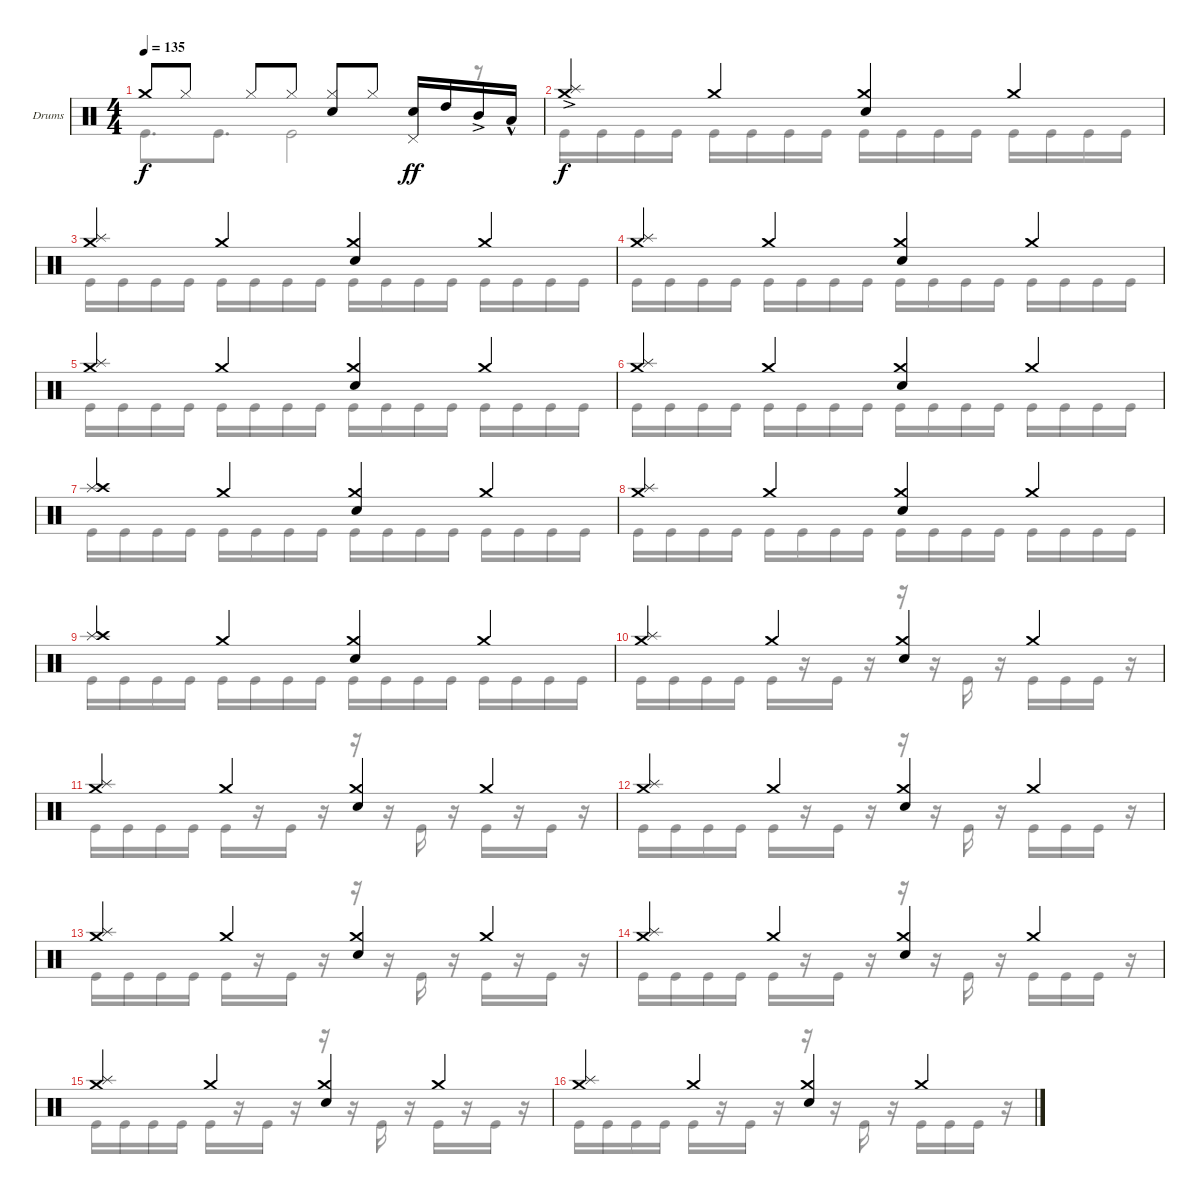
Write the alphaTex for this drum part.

\defaultSystemsLayout 4
\bracketExtendMode groupsimilarinstruments
\firstSystemTrackNameOrientation horizontal
\otherSystemsTrackNameOrientation horizontal
\track ("Drumkit" "Drums") {instrument percussion}
\staff {score}
\articulation defaults
\voice
\ts (4 4)
\tempo 135
\clef neutral
\ks c "Crash medium (hit)".8{dy f} "Hi-Hat (closed)".8 "Hi-Hat (closed)".8 "Hi-Hat (closed)".8
("Snare (hit) 2" "Hi-Hat (closed)").8 "Hi-Hat (closed)".8 ("Snare (hit) 2" "Pedal Hi-Hat (hit)").16{dy ff} "High Tom (hit)".16 "Mid Tom (hit)"{ac}.16 "Low Tom (hit)"{hac}.16 |
("Crash medium (hit)"{ac} "Splash (hit)").4{dy f} "Crash medium (hit)".4 ("Crash medium (hit)" "Snare (hit) 2").4 "Crash medium (hit)".4 |
("Crash medium (hit)" "Splash (hit)").4 "Crash medium (hit)".4 ("Crash medium (hit)" "Snare (hit) 2").4 "Crash medium (hit)".4 |
("Crash medium (hit)" "Splash (hit)").4 "Crash medium (hit)".4 ("Crash medium (hit)" "Snare (hit) 2").4 "Crash medium (hit)".4 |
("Crash medium (hit)" "Splash (hit)").4 "Crash medium (hit)".4 ("Crash medium (hit)" "Snare (hit) 2").4 "Crash medium (hit)".4 |
("Crash medium (hit)" "Splash (hit)").4 "Crash medium (hit)".4 ("Crash medium (hit)" "Snare (hit) 2").4 "Crash medium (hit)".4 |
("Splash (hit)" "Crash high (hit)").4 "Crash medium (hit)".4 ("Crash medium (hit)" "Snare (hit) 2").4 "Crash medium (hit)".4 |
("Crash medium (hit)" "Splash (hit)").4 "Crash medium (hit)".4 ("Crash medium (hit)" "Snare (hit) 2").4 "Crash medium (hit)".4 |
("Splash (hit)" "Crash high (hit)").4 "Crash medium (hit)".4 ("Crash medium (hit)" "Snare (hit) 2").4 "Crash medium (hit)".4 |
("Crash medium (hit)" "Splash (hit)").4 "Crash medium (hit)".4 ("Crash medium (hit)" "Snare (hit) 2").4 "Crash medium (hit)".4 |
("Crash medium (hit)" "Splash (hit)").4 "Crash medium (hit)".4 ("Crash medium (hit)" "Snare (hit) 2").4 "Crash medium (hit)".4 |
("Crash medium (hit)" "Splash (hit)").4 "Crash medium (hit)".4 ("Crash medium (hit)" "Snare (hit) 2").4 "Crash medium (hit)".4 |
("Crash medium (hit)" "Splash (hit)").4 "Crash medium (hit)".4 ("Crash medium (hit)" "Snare (hit) 2").4 "Crash medium (hit)".4 |
("Crash medium (hit)" "Splash (hit)").4 "Crash medium (hit)".4 ("Crash medium (hit)" "Snare (hit) 2").4 "Crash medium (hit)".4 |
("Crash medium (hit)" "Splash (hit)").4 "Crash medium (hit)".4 ("Crash medium (hit)" "Snare (hit) 2").4 "Crash medium (hit)".4 |
("Crash medium (hit)" "Splash (hit)").4 "Crash medium (hit)".4 ("Crash medium (hit)" "Snare (hit) 2").4 "Crash medium (hit)".4
\voice
\clef neutral
\ottava regular
\simile none
\ks c "Kick (hit)".8{d dy f} "Kick (hit)".8{d} "Kick (hit)".2
r.8 |
"Kick (hit)".16 "Kick (hit)".16 "Kick (hit)".16 "Kick (hit)".16 "Kick (hit)".16 "Kick (hit)".16 "Kick (hit)".16 "Kick (hit)".16 "Kick (hit)".16 "Kick (hit)".16 "Kick (hit)".16 "Kick (hit)".16 "Kick (hit)".16 "Kick (hit)".16 "Kick (hit)".16 "Kick (hit)".16 |
"Kick (hit)".16 "Kick (hit)".16 "Kick (hit)".16 "Kick (hit)".16 "Kick (hit)".16 "Kick (hit)".16 "Kick (hit)".16 "Kick (hit)".16 "Kick (hit)".16 "Kick (hit)".16 "Kick (hit)".16 "Kick (hit)".16 "Kick (hit)".16 "Kick (hit)".16 "Kick (hit)".16 "Kick (hit)".16 |
"Kick (hit)".16 "Kick (hit)".16 "Kick (hit)".16 "Kick (hit)".16 "Kick (hit)".16 "Kick (hit)".16 "Kick (hit)".16 "Kick (hit)".16 "Kick (hit)".16 "Kick (hit)".16 "Kick (hit)".16 "Kick (hit)".16 "Kick (hit)".16 "Kick (hit)".16 "Kick (hit)".16 "Kick (hit)".16 |
"Kick (hit)".16 "Kick (hit)".16 "Kick (hit)".16 "Kick (hit)".16 "Kick (hit)".16 "Kick (hit)".16 "Kick (hit)".16 "Kick (hit)".16 "Kick (hit)".16 "Kick (hit)".16 "Kick (hit)".16 "Kick (hit)".16 "Kick (hit)".16 "Kick (hit)".16 "Kick (hit)".16 "Kick (hit)".16 |
"Kick (hit)".16 "Kick (hit)".16 "Kick (hit)".16 "Kick (hit)".16 "Kick (hit)".16 "Kick (hit)".16 "Kick (hit)".16 "Kick (hit)".16 "Kick (hit)".16 "Kick (hit)".16 "Kick (hit)".16 "Kick (hit)".16 "Kick (hit)".16 "Kick (hit)".16 "Kick (hit)".16 "Kick (hit)".16 |
"Kick (hit)".16 "Kick (hit)".16 "Kick (hit)".16 "Kick (hit)".16 "Kick (hit)".16 "Kick (hit)".16 "Kick (hit)".16 "Kick (hit)".16 "Kick (hit)".16 "Kick (hit)".16 "Kick (hit)".16 "Kick (hit)".16 "Kick (hit)".16 "Kick (hit)".16 "Kick (hit)".16 "Kick (hit)".16 |
"Kick (hit)".16 "Kick (hit)".16 "Kick (hit)".16 "Kick (hit)".16 "Kick (hit)".16 "Kick (hit)".16 "Kick (hit)".16 "Kick (hit)".16 "Kick (hit)".16 "Kick (hit)".16 "Kick (hit)".16 "Kick (hit)".16 "Kick (hit)".16 "Kick (hit)".16 "Kick (hit)".16 "Kick (hit)".16 |
"Kick (hit)".16 "Kick (hit)".16 "Kick (hit)".16 "Kick (hit)".16 "Kick (hit)".16 "Kick (hit)".16 "Kick (hit)".16 "Kick (hit)".16 "Kick (hit)".16 "Kick (hit)".16 "Kick (hit)".16 "Kick (hit)".16 "Kick (hit)".16 "Kick (hit)".16 "Kick (hit)".16 "Kick (hit)".16 |
"Kick (hit)".16 "Kick (hit)".16 "Kick (hit)".16 "Kick (hit)".16 "Kick (hit)".16 r.16 "Kick (hit)".16 r.16 r.16 r.16 "Kick (hit)".16 r.16 "Kick (hit)".16 "Kick (hit)".16 "Kick (hit)".16 r.16 |
"Kick (hit)".16 "Kick (hit)".16 "Kick (hit)".16 "Kick (hit)".16 "Kick (hit)".16 r.16 "Kick (hit)".16 r.16 r.16 r.16 "Kick (hit)".16 r.16 "Kick (hit)".16 r.16 "Kick (hit)".16 r.16 |
"Kick (hit)".16 "Kick (hit)".16 "Kick (hit)".16 "Kick (hit)".16 "Kick (hit)".16 r.16 "Kick (hit)".16 r.16 r.16 r.16 "Kick (hit)".16 r.16 "Kick (hit)".16 "Kick (hit)".16 "Kick (hit)".16 r.16 |
"Kick (hit)".16 "Kick (hit)".16 "Kick (hit)".16 "Kick (hit)".16 "Kick (hit)".16 r.16 "Kick (hit)".16 r.16 r.16 r.16 "Kick (hit)".16 r.16 "Kick (hit)".16 r.16 "Kick (hit)".16 r.16 |
"Kick (hit)".16 "Kick (hit)".16 "Kick (hit)".16 "Kick (hit)".16 "Kick (hit)".16 r.16 "Kick (hit)".16 r.16 r.16 r.16 "Kick (hit)".16 r.16 "Kick (hit)".16 "Kick (hit)".16 "Kick (hit)".16 r.16 |
"Kick (hit)".16 "Kick (hit)".16 "Kick (hit)".16 "Kick (hit)".16 "Kick (hit)".16 r.16 "Kick (hit)".16 r.16 r.16 r.16 "Kick (hit)".16 r.16 "Kick (hit)".16 r.16 "Kick (hit)".16 r.16 |
"Kick (hit)".16 "Kick (hit)".16 "Kick (hit)".16 "Kick (hit)".16 "Kick (hit)".16 r.16 "Kick (hit)".16 r.16 r.16 r.16 "Kick (hit)".16 r.16 "Kick (hit)".16 "Kick (hit)".16 "Kick (hit)".16 r.16
